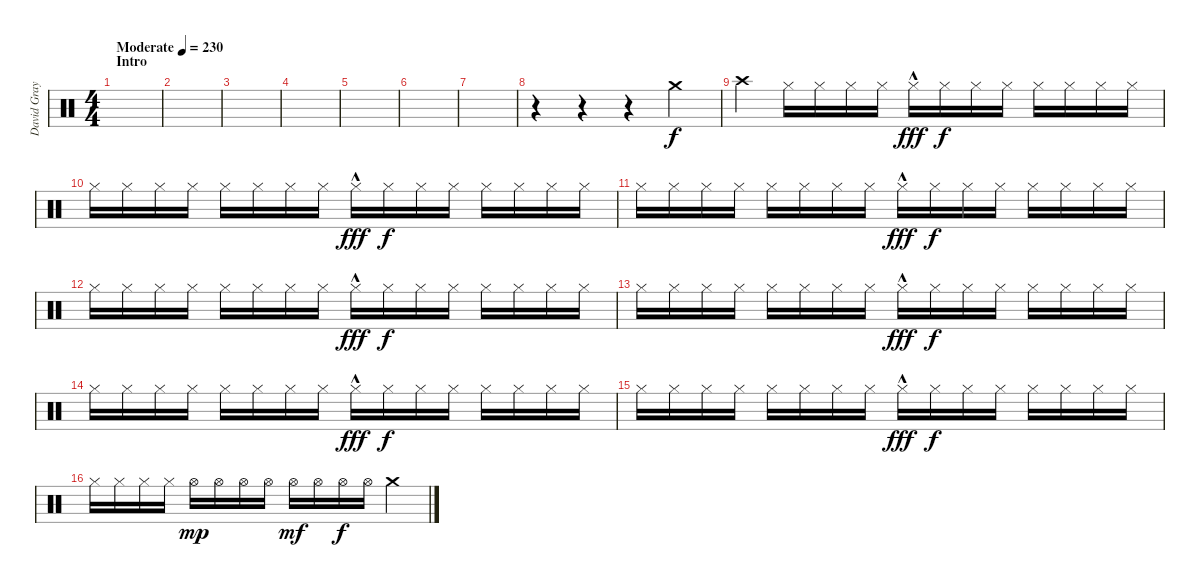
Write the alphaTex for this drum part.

\track ("David Gray" "David Gray") {instrument percussion}
\staff {score}
\articulation defaults
\ts (4 4)
\section ("" "Intro")
\tempo (230 "Moderate")
\clef neutral
\ks c
|
|
|
|
|
|
|
r.4 r.4 r.4 "Crash medium (hit)".4 |
"Crash high (hit)".4 "Hi-Hat (closed)".16{dy f} "Hi-Hat (closed)".16 "Hi-Hat (closed)".16 "Hi-Hat (closed)".16 "Hi-Hat (closed)"{hac}.16{dy fff} "Hi-Hat (closed)".16{dy f} "Hi-Hat (closed)".16 "Hi-Hat (closed)".16 "Hi-Hat (closed)".16 "Hi-Hat (closed)".16 "Hi-Hat (closed)".16 "Hi-Hat (closed)".16 |
"Hi-Hat (closed)".16 "Hi-Hat (closed)".16 "Hi-Hat (closed)".16 "Hi-Hat (closed)".16 "Hi-Hat (closed)".16 "Hi-Hat (closed)".16 "Hi-Hat (closed)".16 "Hi-Hat (closed)".16 "Hi-Hat (closed)"{hac}.16{dy fff} "Hi-Hat (closed)".16{dy f} "Hi-Hat (closed)".16 "Hi-Hat (closed)".16 "Hi-Hat (closed)".16 "Hi-Hat (closed)".16 "Hi-Hat (closed)".16 "Hi-Hat (closed)".16 |
"Hi-Hat (closed)".16 "Hi-Hat (closed)".16 "Hi-Hat (closed)".16 "Hi-Hat (closed)".16 "Hi-Hat (closed)".16 "Hi-Hat (closed)".16 "Hi-Hat (closed)".16 "Hi-Hat (closed)".16 "Hi-Hat (closed)"{hac}.16{dy fff} "Hi-Hat (closed)".16{dy f} "Hi-Hat (closed)".16 "Hi-Hat (closed)".16 "Hi-Hat (closed)".16 "Hi-Hat (closed)".16 "Hi-Hat (closed)".16 "Hi-Hat (closed)".16 |
"Hi-Hat (closed)".16 "Hi-Hat (closed)".16 "Hi-Hat (closed)".16 "Hi-Hat (closed)".16 "Hi-Hat (closed)".16 "Hi-Hat (closed)".16 "Hi-Hat (closed)".16 "Hi-Hat (closed)".16 "Hi-Hat (closed)"{hac}.16{dy fff} "Hi-Hat (closed)".16{dy f} "Hi-Hat (closed)".16 "Hi-Hat (closed)".16 "Hi-Hat (closed)".16 "Hi-Hat (closed)".16 "Hi-Hat (closed)".16 "Hi-Hat (closed)".16 |
"Hi-Hat (closed)".16 "Hi-Hat (closed)".16 "Hi-Hat (closed)".16 "Hi-Hat (closed)".16 "Hi-Hat (closed)".16 "Hi-Hat (closed)".16 "Hi-Hat (closed)".16 "Hi-Hat (closed)".16 "Hi-Hat (closed)"{hac}.16{dy fff} "Hi-Hat (closed)".16{dy f} "Hi-Hat (closed)".16 "Hi-Hat (closed)".16 "Hi-Hat (closed)".16 "Hi-Hat (closed)".16 "Hi-Hat (closed)".16 "Hi-Hat (closed)".16 |
"Hi-Hat (closed)".16 "Hi-Hat (closed)".16 "Hi-Hat (closed)".16 "Hi-Hat (closed)".16 "Hi-Hat (closed)".16 "Hi-Hat (closed)".16 "Hi-Hat (closed)".16 "Hi-Hat (closed)".16 "Hi-Hat (closed)"{hac}.16{dy fff} "Hi-Hat (closed)".16{dy f} "Hi-Hat (closed)".16 "Hi-Hat (closed)".16 "Hi-Hat (closed)".16 "Hi-Hat (closed)".16 "Hi-Hat (closed)".16 "Hi-Hat (closed)".16 |
"Hi-Hat (closed)".16 "Hi-Hat (closed)".16 "Hi-Hat (closed)".16 "Hi-Hat (closed)".16 "Hi-Hat (closed)".16 "Hi-Hat (closed)".16 "Hi-Hat (closed)".16 "Hi-Hat (closed)".16 "Hi-Hat (closed)"{hac}.16{dy fff} "Hi-Hat (closed)".16{dy f} "Hi-Hat (closed)".16 "Hi-Hat (closed)".16 "Hi-Hat (closed)".16 "Hi-Hat (closed)".16 "Hi-Hat (closed)".16 "Hi-Hat (closed)".16 |
"Hi-Hat (closed)".16 "Hi-Hat (closed)".16 "Hi-Hat (closed)".16 "Hi-Hat (closed)".16 "Hi-Hat (open)".16{dy mp} "Hi-Hat (open)".16 "Hi-Hat (open)".16 "Hi-Hat (open)".16 "Hi-Hat (open)".16{dy mf} "Hi-Hat (open)".16 "Hi-Hat (open)".16{dy f} "Hi-Hat (open)".16 "Crash medium (hit)".4
